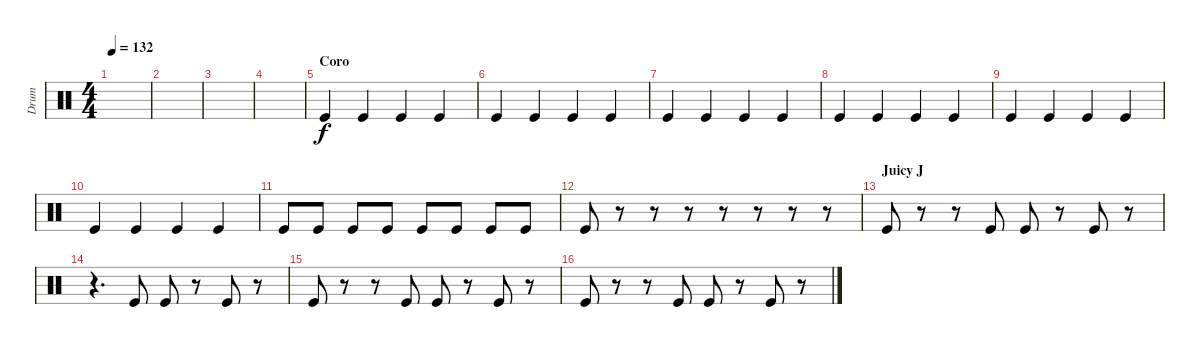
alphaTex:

\track ("Drum" "Drum") {instrument percussion}
\staff {score}
\articulation defaults
\ts (4 4)
\tempo 132
\clef neutral
\ks c
|
|
|
|
\section ("" "Coro")
"Kick (hit)".4 "Kick (hit)".4 "Kick (hit)".4 "Kick (hit)".4 |
"Kick (hit)".4 "Kick (hit)".4 "Kick (hit)".4 "Kick (hit)".4 |
"Kick (hit)".4 "Kick (hit)".4 "Kick (hit)".4 "Kick (hit)".4 |
"Kick (hit)".4 "Kick (hit)".4 "Kick (hit)".4 "Kick (hit)".4 |
"Kick (hit)".4 "Kick (hit)".4 "Kick (hit)".4 "Kick (hit)".4 |
"Kick (hit)".4 "Kick (hit)".4 "Kick (hit)".4 "Kick (hit)".4 |
"Kick (hit)".8 "Kick (hit)".8 "Kick (hit)".8 "Kick (hit)".8 "Kick (hit)".8 "Kick (hit)".8 "Kick (hit)".8 "Kick (hit)".8 |
"Kick (hit)".8 r.8 r.8 r.8 r.8 r.8 r.8 r.8 |
\section ("" "Juicy J")
"Kick (hit)".8 r.8 r.8 "Kick (hit)".8 "Kick (hit)".8 r.8 "Kick (hit)".8 r.8 |
r.4{d} "Kick (hit)".8 "Kick (hit)".8 r.8 "Kick (hit)".8 r.8 |
"Kick (hit)".8 r.8 r.8 "Kick (hit)".8 "Kick (hit)".8 r.8 "Kick (hit)".8 r.8 |
"Kick (hit)".8 r.8 r.8 "Kick (hit)".8 "Kick (hit)".8 r.8 "Kick (hit)".8 r.8
